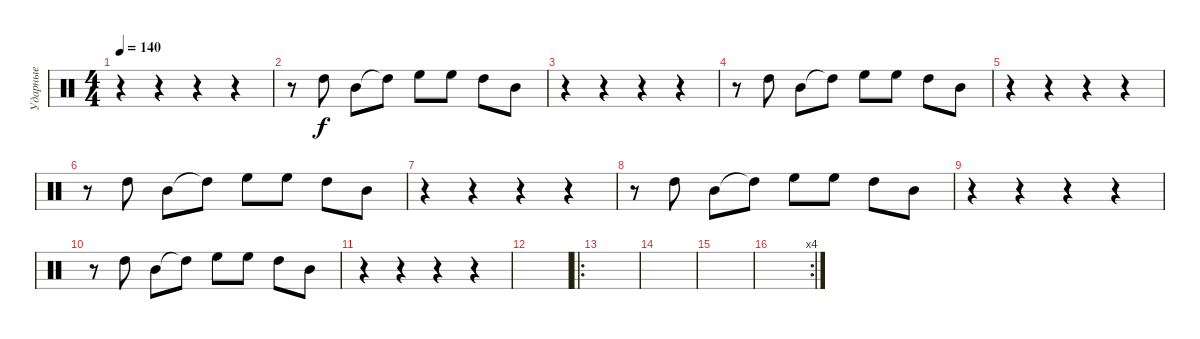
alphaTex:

\track ("Ударные" "Ударные") {instrument percussion}
\staff {score}
\articulation defaults
\ts (4 4)
\tempo 140
\clef neutral
\ks c
r.4{dy f} r.4 r.4 r.4 |
r.8 "High Tom (hit)".8 "Mid Tom (hit)".8 "High Tom (hit)"{t}.8 "High Floor Tom (hit)".8 "High Floor Tom (hit)".8 "High Tom (hit)".8 "Mid Tom (hit)".8 |
r.4 r.4 r.4 r.4 |
r.8 "High Tom (hit)".8 "Mid Tom (hit)".8 "High Tom (hit)"{t}.8 "High Floor Tom (hit)".8 "High Floor Tom (hit)".8 "High Tom (hit)".8 "Mid Tom (hit)".8 |
r.4 r.4 r.4 r.4 |
r.8 "High Tom (hit)".8 "Mid Tom (hit)".8 "High Tom (hit)"{t}.8 "High Floor Tom (hit)".8 "High Floor Tom (hit)".8 "High Tom (hit)".8 "Mid Tom (hit)".8 |
r.4 r.4 r.4 r.4 |
r.8 "High Tom (hit)".8 "Mid Tom (hit)".8 "High Tom (hit)"{t}.8 "High Floor Tom (hit)".8 "High Floor Tom (hit)".8 "High Tom (hit)".8 "Mid Tom (hit)".8 |
r.4 r.4 r.4 r.4 |
r.8 "High Tom (hit)".8 "Mid Tom (hit)".8 "High Tom (hit)"{t}.8 "High Floor Tom (hit)".8 "High Floor Tom (hit)".8 "High Tom (hit)".8 "Mid Tom (hit)".8 |
r.4 r.4 r.4 r.4 |
|
\ro
|
|
|
\rc 4
